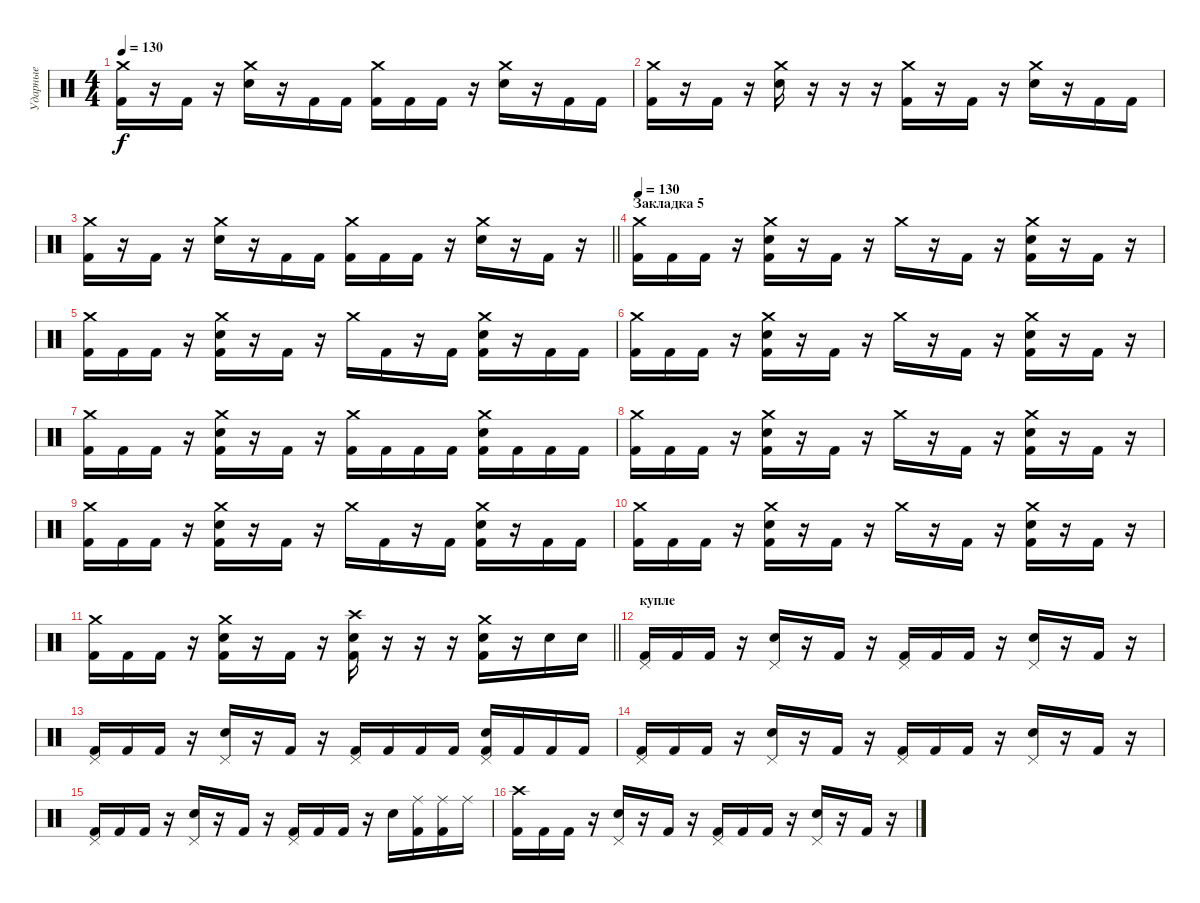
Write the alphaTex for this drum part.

\track ("Ударные" "Ударные") {instrument percussion}
\staff {score}
\articulation defaults
\ts (4 4)
\tempo 130
\clef neutral
\ks c
("Crash medium (hit)" "Kick (hit) 2").16{dy f} r.16 "Kick (hit) 2".16 r.16 ("Crash medium (hit)" "Snare (hit) 2").16 r.16 "Kick (hit) 2".16 "Kick (hit) 2".16 ("Crash medium (hit)" "Kick (hit) 2").16 "Kick (hit) 2".16 "Kick (hit) 2".16 r.16 ("Crash medium (hit)" "Snare (hit) 2").16 r.16 "Kick (hit) 2".16 "Kick (hit) 2".16 |
("Crash medium (hit)" "Kick (hit) 2").16 r.16 "Kick (hit) 2".16 r.16 ("Crash medium (hit)" "Snare (hit) 2").16 r.16 r.16 r.16 ("Crash medium (hit)" "Kick (hit) 2").16 r.16 "Kick (hit) 2".16 r.16 ("Crash medium (hit)" "Snare (hit) 2").16 r.16 "Kick (hit) 2".16 "Kick (hit) 2".16 |
\barLineRight lightlight
("Crash medium (hit)" "Kick (hit) 2").16 r.16 "Kick (hit) 2".16 r.16 ("Crash medium (hit)" "Snare (hit) 2").16 r.16 "Kick (hit) 2".16 "Kick (hit) 2".16 ("Crash medium (hit)" "Kick (hit) 2").16 "Kick (hit) 2".16 "Kick (hit) 2".16 r.16 ("Crash medium (hit)" "Snare (hit) 2").16 r.16 "Kick (hit) 2".16 r.16 |
\section ("" "Закладка 5")
\tempo 130
("Crash medium (hit)" "Kick (hit) 2").16 "Kick (hit) 2".16 "Kick (hit) 2".16 r.16 ("Crash medium (hit)" "Snare (hit) 2" "Kick (hit) 2").16 r.16 "Kick (hit) 2".16 r.16 "Crash medium (hit)".16 r.16 "Kick (hit) 2".16 r.16 ("Crash medium (hit)" "Snare (hit) 2" "Kick (hit) 2").16 r.16 "Kick (hit) 2".16 r.16 |
("Crash medium (hit)" "Kick (hit) 2").16 "Kick (hit) 2".16 "Kick (hit) 2".16 r.16 ("Crash medium (hit)" "Snare (hit) 2" "Kick (hit) 2").16 r.16 "Kick (hit) 2".16 r.16 "Crash medium (hit)".16 "Kick (hit) 2".16 r.16 "Kick (hit) 2".16 ("Crash medium (hit)" "Snare (hit) 2" "Kick (hit) 2").16 r.16 "Kick (hit) 2".16 "Kick (hit) 2".16 |
("Crash medium (hit)" "Kick (hit) 2").16 "Kick (hit) 2".16 "Kick (hit) 2".16 r.16 ("Crash medium (hit)" "Snare (hit) 2" "Kick (hit) 2").16 r.16 "Kick (hit) 2".16 r.16 "Crash medium (hit)".16 r.16 "Kick (hit) 2".16 r.16 ("Crash medium (hit)" "Snare (hit) 2" "Kick (hit) 2").16 r.16 "Kick (hit) 2".16 r.16 |
("Crash medium (hit)" "Kick (hit) 2").16 "Kick (hit) 2".16 "Kick (hit) 2".16 r.16 ("Crash medium (hit)" "Snare (hit) 2" "Kick (hit) 2").16 r.16 "Kick (hit) 2".16 r.16 ("Crash medium (hit)" "Kick (hit) 2").16 "Kick (hit) 2".16 "Kick (hit) 2".16 "Kick (hit) 2".16 ("Crash medium (hit)" "Snare (hit) 2" "Kick (hit) 2").16 "Kick (hit) 2".16 "Kick (hit) 2".16 "Kick (hit) 2".16 |
("Crash medium (hit)" "Kick (hit) 2").16 "Kick (hit) 2".16 "Kick (hit) 2".16 r.16 ("Crash medium (hit)" "Snare (hit) 2" "Kick (hit) 2").16 r.16 "Kick (hit) 2".16 r.16 "Crash medium (hit)".16 r.16 "Kick (hit) 2".16 r.16 ("Crash medium (hit)" "Snare (hit) 2" "Kick (hit) 2").16 r.16 "Kick (hit) 2".16 r.16 |
("Crash medium (hit)" "Kick (hit) 2").16 "Kick (hit) 2".16 "Kick (hit) 2".16 r.16 ("Crash medium (hit)" "Snare (hit) 2" "Kick (hit) 2").16 r.16 "Kick (hit) 2".16 r.16 "Crash medium (hit)".16 "Kick (hit) 2".16 r.16 "Kick (hit) 2".16 ("Crash medium (hit)" "Snare (hit) 2" "Kick (hit) 2").16 r.16 "Kick (hit) 2".16 "Kick (hit) 2".16 |
("Crash medium (hit)" "Kick (hit) 2").16 "Kick (hit) 2".16 "Kick (hit) 2".16 r.16 ("Crash medium (hit)" "Snare (hit) 2" "Kick (hit) 2").16 r.16 "Kick (hit) 2".16 r.16 "Crash medium (hit)".16 r.16 "Kick (hit) 2".16 r.16 ("Crash medium (hit)" "Snare (hit) 2" "Kick (hit) 2").16 r.16 "Kick (hit) 2".16 r.16 |
\barLineRight lightlight
("Crash medium (hit)" "Kick (hit) 2").16 "Kick (hit) 2".16 "Kick (hit) 2".16 r.16 ("Crash medium (hit)" "Snare (hit) 2" "Kick (hit) 2").16 r.16 "Kick (hit) 2".16 r.16 ("Crash high (hit)" "Snare (hit) 2" "Kick (hit) 2").16 r.16 r.16 r.16 ("Crash medium (hit)" "Snare (hit) 2" "Kick (hit) 2").16 r.16 "Snare (hit) 2".16 "Snare (hit) 2".16 |
\section ("" "купле")
("Pedal Hi-Hat (hit)" "Kick (hit) 2").16 "Kick (hit) 2".16 "Kick (hit) 2".16 r.16 ("Pedal Hi-Hat (hit)" "Snare (hit) 2").16 r.16 "Kick (hit) 2".16 r.16 ("Pedal Hi-Hat (hit)" "Kick (hit) 2").16 "Kick (hit) 2".16 "Kick (hit) 2".16 r.16 ("Pedal Hi-Hat (hit)" "Snare (hit) 2").16 r.16 "Kick (hit) 2".16 r.16 |
("Pedal Hi-Hat (hit)" "Kick (hit) 2").16 "Kick (hit) 2".16 "Kick (hit) 2".16 r.16 ("Pedal Hi-Hat (hit)" "Snare (hit) 2").16 r.16 "Kick (hit) 2".16 r.16 ("Pedal Hi-Hat (hit)" "Kick (hit) 2").16 "Kick (hit) 2".16 "Kick (hit) 2".16 "Kick (hit) 2".16 ("Pedal Hi-Hat (hit)" "Snare (hit) 2" "Kick (hit) 2").16 "Kick (hit) 2".16 "Kick (hit) 2".16 "Kick (hit) 2".16 |
("Pedal Hi-Hat (hit)" "Kick (hit) 2").16 "Kick (hit) 2".16 "Kick (hit) 2".16 r.16 ("Pedal Hi-Hat (hit)" "Snare (hit) 2").16 r.16 "Kick (hit) 2".16 r.16 ("Pedal Hi-Hat (hit)" "Kick (hit) 2").16 "Kick (hit) 2".16 "Kick (hit) 2".16 r.16 ("Pedal Hi-Hat (hit)" "Snare (hit) 2").16 r.16 "Kick (hit) 2".16 r.16 |
("Pedal Hi-Hat (hit)" "Kick (hit) 2").16 "Kick (hit) 2".16 "Kick (hit) 2".16 r.16 ("Pedal Hi-Hat (hit)" "Snare (hit) 2").16 r.16 "Kick (hit) 2".16 r.16 ("Pedal Hi-Hat (hit)" "Kick (hit) 2").16 "Kick (hit) 2".16 "Kick (hit) 2".16 r.16 "Snare (hit) 2".16 ("Ride (middle)" "Kick (hit) 2").16 ("Ride (middle)" "Kick (hit) 2").16 "Ride (middle)".16 |
("Crash high (hit)" "Kick (hit) 2").16 "Kick (hit) 2".16 "Kick (hit) 2".16 r.16 ("Pedal Hi-Hat (hit)" "Snare (hit) 2").16 r.16 "Kick (hit) 2".16 r.16 ("Pedal Hi-Hat (hit)" "Kick (hit) 2").16 "Kick (hit) 2".16 "Kick (hit) 2".16 r.16 ("Pedal Hi-Hat (hit)" "Snare (hit) 2").16 r.16 "Kick (hit) 2".16 r.16
